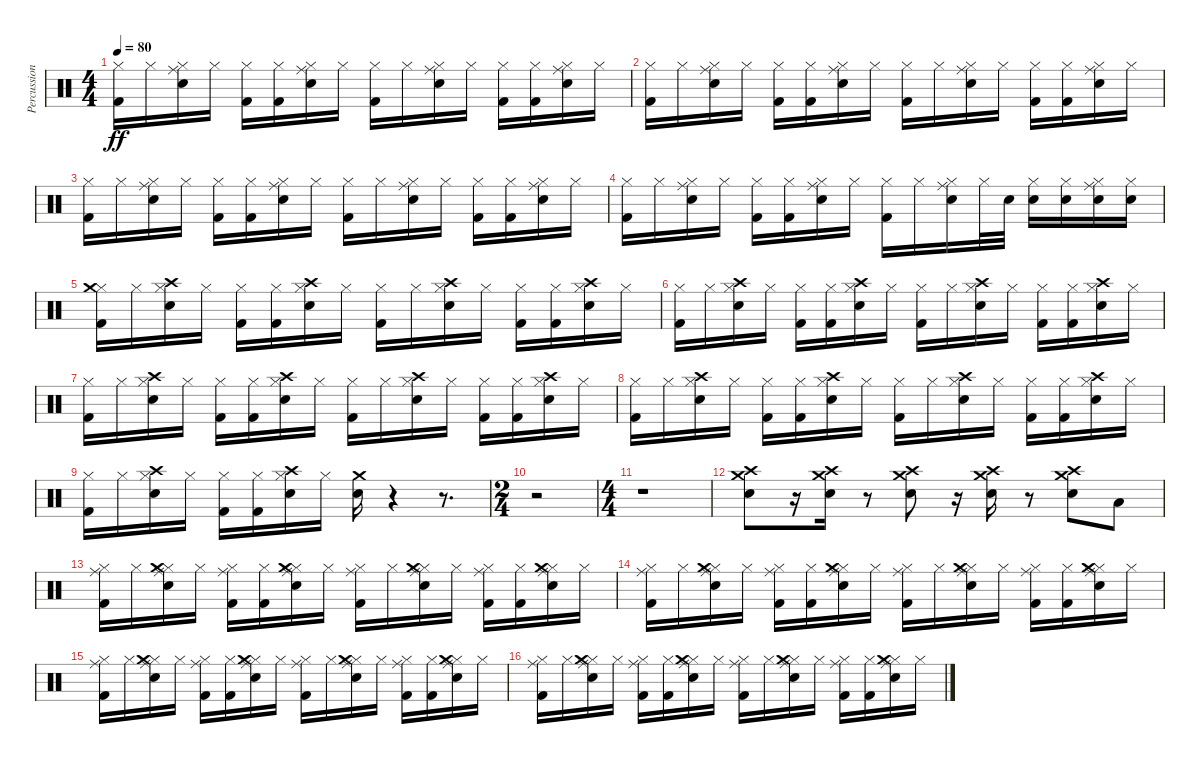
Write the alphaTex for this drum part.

\track ("Percussion" "Percussion") {instrument percussion}
\staff {score}
\articulation defaults
\ts (4 4)
\tempo 80
\clef neutral
\ks c
("Kick (hit) 2" "Hi-Hat (closed)").16{dy ff} "Hi-Hat (closed)".16 ("Snare (hit) 2" "Hi-Hat (closed)" "Ride (middle)").16 "Hi-Hat (closed)".16 ("Kick (hit) 2" "Hi-Hat (closed)").16 ("Kick (hit) 2" "Hi-Hat (closed)").16 ("Snare (hit) 2" "Hi-Hat (closed)" "Ride (middle)").16 "Hi-Hat (closed)".16 ("Kick (hit) 2" "Hi-Hat (closed)").16 "Hi-Hat (closed)".16 ("Snare (hit) 2" "Hi-Hat (closed)" "Ride (middle)").16 "Hi-Hat (closed)".16 ("Kick (hit) 2" "Hi-Hat (closed)").16 ("Kick (hit) 2" "Hi-Hat (closed)").16 ("Snare (hit) 2" "Hi-Hat (closed)" "Ride (middle)").16 "Hi-Hat (closed)".16 |
("Kick (hit) 2" "Hi-Hat (closed)").16 "Hi-Hat (closed)".16 ("Snare (hit) 2" "Hi-Hat (closed)" "Ride (middle)").16 "Hi-Hat (closed)".16 ("Kick (hit) 2" "Hi-Hat (closed)").16 ("Kick (hit) 2" "Hi-Hat (closed)").16 ("Snare (hit) 2" "Hi-Hat (closed)" "Ride (middle)").16 "Hi-Hat (closed)".16 ("Kick (hit) 2" "Hi-Hat (closed)").16 "Hi-Hat (closed)".16 ("Snare (hit) 2" "Hi-Hat (closed)" "Ride (middle)").16 "Hi-Hat (closed)".16 ("Kick (hit) 2" "Hi-Hat (closed)").16 ("Kick (hit) 2" "Hi-Hat (closed)").16 ("Snare (hit) 2" "Hi-Hat (closed)" "Ride (middle)").16 "Hi-Hat (closed)".16 |
("Kick (hit) 2" "Hi-Hat (closed)").16 "Hi-Hat (closed)".16 ("Snare (hit) 2" "Hi-Hat (closed)" "Ride (middle)").16 "Hi-Hat (closed)".16 ("Kick (hit) 2" "Hi-Hat (closed)").16 ("Kick (hit) 2" "Hi-Hat (closed)").16 ("Snare (hit) 2" "Hi-Hat (closed)" "Ride (middle)").16 "Hi-Hat (closed)".16 ("Kick (hit) 2" "Hi-Hat (closed)").16 "Hi-Hat (closed)".16 ("Snare (hit) 2" "Hi-Hat (closed)" "Ride (middle)").16 "Hi-Hat (closed)".16 ("Kick (hit) 2" "Hi-Hat (closed)").16 ("Kick (hit) 2" "Hi-Hat (closed)").16 ("Snare (hit) 2" "Hi-Hat (closed)" "Ride (middle)").16 "Hi-Hat (closed)".16 |
("Kick (hit) 2" "Hi-Hat (closed)").16 "Hi-Hat (closed)".16 ("Snare (hit) 2" "Hi-Hat (closed)" "Ride (middle)").16 "Hi-Hat (closed)".16 ("Kick (hit) 2" "Hi-Hat (closed)").16 ("Kick (hit) 2" "Hi-Hat (closed)").16 ("Snare (hit) 2" "Hi-Hat (closed)" "Ride (middle)").16 "Hi-Hat (closed)".16 ("Kick (hit) 2" "Hi-Hat (closed)").16 "Hi-Hat (closed)".16 ("Snare (hit) 2" "Hi-Hat (closed)" "Ride (middle)").16 "Hi-Hat (closed)".32 "Snare (hit) 2".32 ("Snare (hit) 2" "Hi-Hat (closed)").16 ("Snare (hit) 2" "Hi-Hat (closed)").16 ("Snare (hit) 2" "Hi-Hat (closed)" "Ride (middle)").16 ("Snare (hit) 2" "Hi-Hat (closed)").16 |
("Kick (hit) 2" "Hi-Hat (closed)" "Crash medium (hit)").16 "Hi-Hat (closed)".16 ("Snare (hit) 2" "Hi-Hat (closed)" "Crash high (hit)").16 "Hi-Hat (closed)".16 ("Kick (hit) 2" "Hi-Hat (closed)").16 ("Kick (hit) 2" "Hi-Hat (closed)").16 ("Snare (hit) 2" "Hi-Hat (closed)" "Crash high (hit)").16 "Hi-Hat (closed)".16 ("Kick (hit) 2" "Hi-Hat (closed)").16 "Hi-Hat (closed)".16 ("Snare (hit) 2" "Hi-Hat (closed)" "Crash high (hit)").16 "Hi-Hat (closed)".16 ("Kick (hit) 2" "Hi-Hat (closed)").16 ("Kick (hit) 2" "Hi-Hat (closed)").16 ("Snare (hit) 2" "Hi-Hat (closed)" "Crash high (hit)").16 "Hi-Hat (closed)".16 |
("Kick (hit) 2" "Hi-Hat (closed)").16 "Hi-Hat (closed)".16 ("Snare (hit) 2" "Hi-Hat (closed)" "Crash high (hit)").16 "Hi-Hat (closed)".16 ("Kick (hit) 2" "Hi-Hat (closed)").16 ("Kick (hit) 2" "Hi-Hat (closed)").16 ("Snare (hit) 2" "Hi-Hat (closed)" "Crash high (hit)").16 "Hi-Hat (closed)".16 ("Kick (hit) 2" "Hi-Hat (closed)").16 "Hi-Hat (closed)".16 ("Snare (hit) 2" "Hi-Hat (closed)" "Crash high (hit)").16 "Hi-Hat (closed)".16 ("Kick (hit) 2" "Hi-Hat (closed)").16 ("Kick (hit) 2" "Hi-Hat (closed)").16 ("Snare (hit) 2" "Hi-Hat (closed)" "Crash high (hit)").16 "Hi-Hat (closed)".16 |
("Kick (hit) 2" "Hi-Hat (closed)").16 "Hi-Hat (closed)".16 ("Snare (hit) 2" "Hi-Hat (closed)" "Crash high (hit)").16 "Hi-Hat (closed)".16 ("Kick (hit) 2" "Hi-Hat (closed)").16 ("Kick (hit) 2" "Hi-Hat (closed)").16 ("Snare (hit) 2" "Hi-Hat (closed)" "Crash high (hit)").16 "Hi-Hat (closed)".16 ("Kick (hit) 2" "Hi-Hat (closed)").16 "Hi-Hat (closed)".16 ("Snare (hit) 2" "Hi-Hat (closed)" "Crash high (hit)").16 "Hi-Hat (closed)".16 ("Kick (hit) 2" "Hi-Hat (closed)").16 ("Kick (hit) 2" "Hi-Hat (closed)").16 ("Snare (hit) 2" "Hi-Hat (closed)" "Crash high (hit)").16 "Hi-Hat (closed)".16 |
("Kick (hit) 2" "Hi-Hat (closed)").16 "Hi-Hat (closed)".16 ("Snare (hit) 2" "Hi-Hat (closed)" "Crash high (hit)").16 "Hi-Hat (closed)".16 ("Kick (hit) 2" "Hi-Hat (closed)").16 ("Kick (hit) 2" "Hi-Hat (closed)").16 ("Snare (hit) 2" "Hi-Hat (closed)" "Crash high (hit)").16 "Hi-Hat (closed)".16 ("Kick (hit) 2" "Hi-Hat (closed)").16 "Hi-Hat (closed)".16 ("Snare (hit) 2" "Hi-Hat (closed)" "Crash high (hit)").16 "Hi-Hat (closed)".16 ("Kick (hit) 2" "Hi-Hat (closed)").16 ("Kick (hit) 2" "Hi-Hat (closed)").16 ("Snare (hit) 2" "Hi-Hat (closed)" "Crash high (hit)").16 "Hi-Hat (closed)".16 |
("Kick (hit) 2" "Hi-Hat (closed)").16 "Hi-Hat (closed)".16 ("Snare (hit) 2" "Hi-Hat (closed)" "Crash high (hit)").16 "Hi-Hat (closed)".16 ("Kick (hit) 2" "Hi-Hat (closed)").16 ("Kick (hit) 2" "Hi-Hat (closed)").16 ("Snare (hit) 2" "Hi-Hat (closed)" "Crash high (hit)").16 "Hi-Hat (closed)".16 ("Snare (hit) 2" "Crash medium (hit)").16 r.4 r.8{d} |
\ts (2 4)
r.2 |
\ts (4 4)
r.1 |
("Snare (hit) 2" "Crash high (hit)" "Crash medium (hit)").8 r.16 ("Snare (hit) 2" "Crash high (hit)" "Crash medium (hit)").16 r.8 ("Snare (hit) 2" "Crash high (hit)" "Crash medium (hit)").8 r.16 ("Snare (hit) 2" "Crash high (hit)" "Crash medium (hit)").16 r.8 ("Snare (hit) 2" "Crash high (hit)" "Crash medium (hit)").8 "Low Floor Tom (hit)".8 |
("Kick (hit) 2" "Hi-Hat (closed)" "Ride (middle)").16 "Hi-Hat (closed)".16 ("Snare (hit) 2" "Hi-Hat (closed)" "Ride (middle)" "Crash medium (hit)").16 "Hi-Hat (closed)".16 ("Kick (hit) 2" "Hi-Hat (closed)" "Ride (middle)").16 ("Kick (hit) 2" "Hi-Hat (closed)").16 ("Snare (hit) 2" "Hi-Hat (closed)" "Ride (middle)" "Crash medium (hit)").16 "Hi-Hat (closed)".16 ("Kick (hit) 2" "Hi-Hat (closed)" "Ride (middle)").16 "Hi-Hat (closed)".16 ("Snare (hit) 2" "Hi-Hat (closed)" "Ride (middle)" "Crash medium (hit)").16 "Hi-Hat (closed)".16 ("Kick (hit) 2" "Hi-Hat (closed)" "Ride (middle)").16 ("Kick (hit) 2" "Hi-Hat (closed)").16 ("Snare (hit) 2" "Hi-Hat (closed)" "Ride (middle)" "Crash medium (hit)").16 "Hi-Hat (closed)".16 |
("Kick (hit) 2" "Hi-Hat (closed)" "Ride (middle)").16 "Hi-Hat (closed)".16 ("Snare (hit) 2" "Hi-Hat (closed)" "Ride (middle)" "Crash medium (hit)").16 "Hi-Hat (closed)".16 ("Kick (hit) 2" "Hi-Hat (closed)" "Ride (middle)").16 ("Kick (hit) 2" "Hi-Hat (closed)").16 ("Snare (hit) 2" "Hi-Hat (closed)" "Ride (middle)" "Crash medium (hit)").16 "Hi-Hat (closed)".16 ("Kick (hit) 2" "Hi-Hat (closed)" "Ride (middle)").16 "Hi-Hat (closed)".16 ("Snare (hit) 2" "Hi-Hat (closed)" "Ride (middle)" "Crash medium (hit)").16 "Hi-Hat (closed)".16 ("Kick (hit) 2" "Hi-Hat (closed)" "Ride (middle)").16 ("Kick (hit) 2" "Hi-Hat (closed)").16 ("Snare (hit) 2" "Hi-Hat (closed)" "Ride (middle)" "Crash medium (hit)").16 "Hi-Hat (closed)".16 |
("Kick (hit) 2" "Hi-Hat (closed)" "Ride (middle)").16 "Hi-Hat (closed)".16 ("Snare (hit) 2" "Hi-Hat (closed)" "Ride (middle)" "Crash medium (hit)").16 "Hi-Hat (closed)".16 ("Kick (hit) 2" "Hi-Hat (closed)" "Ride (middle)").16 ("Kick (hit) 2" "Hi-Hat (closed)").16 ("Snare (hit) 2" "Hi-Hat (closed)" "Ride (middle)" "Crash medium (hit)").16 "Hi-Hat (closed)".16 ("Kick (hit) 2" "Hi-Hat (closed)" "Ride (middle)").16 "Hi-Hat (closed)".16 ("Snare (hit) 2" "Hi-Hat (closed)" "Ride (middle)" "Crash medium (hit)").16 "Hi-Hat (closed)".16 ("Kick (hit) 2" "Hi-Hat (closed)" "Ride (middle)").16 ("Kick (hit) 2" "Hi-Hat (closed)").16 ("Snare (hit) 2" "Hi-Hat (closed)" "Ride (middle)" "Crash medium (hit)").16 "Hi-Hat (closed)".16 |
("Kick (hit) 2" "Hi-Hat (closed)" "Ride (middle)").16 "Hi-Hat (closed)".16 ("Snare (hit) 2" "Hi-Hat (closed)" "Ride (middle)" "Crash medium (hit)").16 "Hi-Hat (closed)".16 ("Kick (hit) 2" "Hi-Hat (closed)" "Ride (middle)").16 ("Kick (hit) 2" "Hi-Hat (closed)").16 ("Snare (hit) 2" "Hi-Hat (closed)" "Ride (middle)" "Crash medium (hit)").16 "Hi-Hat (closed)".16 ("Kick (hit) 2" "Hi-Hat (closed)" "Ride (middle)").16 "Hi-Hat (closed)".16 ("Snare (hit) 2" "Hi-Hat (closed)" "Ride (middle)" "Crash medium (hit)").16 "Hi-Hat (closed)".16 ("Kick (hit) 2" "Hi-Hat (closed)" "Ride (middle)").16 ("Kick (hit) 2" "Hi-Hat (closed)").16 ("Snare (hit) 2" "Hi-Hat (closed)" "Ride (middle)" "Crash medium (hit)").16 "Hi-Hat (closed)".16
